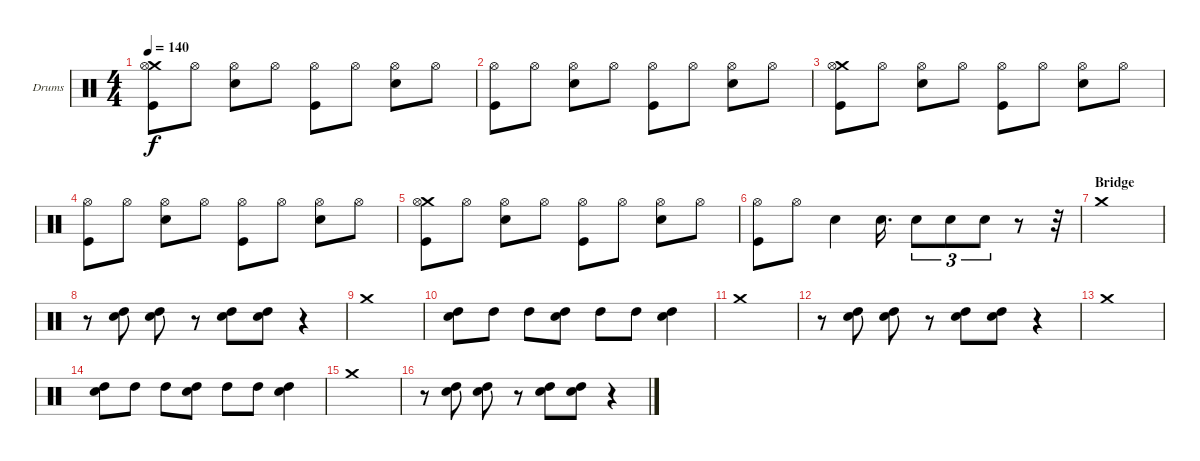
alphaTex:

\bracketExtendMode groupsimilarinstruments
\firstSystemTrackNameOrientation horizontal
\otherSystemsTrackNameOrientation horizontal
\track ("Drumkit" "Drums") {instrument percussion}
\staff {score}
\articulation defaults
\ts (4 4)
\tempo 140
\clef neutral
\ks c
("Crash medium (hit)" "Hi-Hat (open)" "Kick (hit)").8{dy f} "Hi-Hat (open)".8 ("Hi-Hat (open)" "Snare (hit) 2").8 "Hi-Hat (open)".8 ("Hi-Hat (open)" "Kick (hit)").8 "Hi-Hat (open)".8 ("Hi-Hat (open)" "Snare (hit) 2").8 "Hi-Hat (open)".8 |
("Hi-Hat (open)" "Kick (hit)").8 "Hi-Hat (open)".8 ("Hi-Hat (open)" "Snare (hit) 2").8 "Hi-Hat (open)".8 ("Hi-Hat (open)" "Kick (hit)").8 "Hi-Hat (open)".8 ("Hi-Hat (open)" "Snare (hit) 2").8 "Hi-Hat (open)".8 |
("Crash medium (hit)" "Hi-Hat (open)" "Kick (hit)").8 "Hi-Hat (open)".8 ("Hi-Hat (open)" "Snare (hit) 2").8 "Hi-Hat (open)".8 ("Hi-Hat (open)" "Kick (hit)").8 "Hi-Hat (open)".8 ("Hi-Hat (open)" "Snare (hit) 2").8 "Hi-Hat (open)".8 |
("Hi-Hat (open)" "Kick (hit)").8 "Hi-Hat (open)".8 ("Hi-Hat (open)" "Snare (hit) 2").8 "Hi-Hat (open)".8 ("Hi-Hat (open)" "Kick (hit)").8 "Hi-Hat (open)".8 ("Hi-Hat (open)" "Snare (hit) 2").8 "Hi-Hat (open)".8 |
("Crash medium (hit)" "Hi-Hat (open)" "Kick (hit)").8 "Hi-Hat (open)".8 ("Hi-Hat (open)" "Snare (hit) 2").8 "Hi-Hat (open)".8 ("Hi-Hat (open)" "Kick (hit)").8 "Hi-Hat (open)".8 ("Hi-Hat (open)" "Snare (hit) 2").8 "Hi-Hat (open)".8 |
("Hi-Hat (open)" "Kick (hit)").8 "Hi-Hat (open)".8 "Snare (hit) 2".4 "Snare (hit) 2".16{d} "Snare (hit) 2".8{tu (3 2)} "Snare (hit) 2".8{tu (3 2)} "Snare (hit) 2".8{tu (3 2)} r.8 r.32 |
\section ("" "Bridge")
"Crash medium (hit)".1 |
r.8 ("High Tom (hit)" "Snare (hit) 2").8 ("High Tom (hit)" "Snare (hit) 2").8 r.8 ("High Tom (hit)" "Snare (hit) 2").8 ("High Tom (hit)" "Snare (hit) 2").8 r.4 |
"Crash medium (hit)".1 |
("High Tom (hit)" "Snare (hit) 2").8 "High Tom (hit)".8 "High Tom (hit)".8 ("High Tom (hit)" "Snare (hit) 2").8 "High Tom (hit)".8 "High Tom (hit)".8 ("High Tom (hit)" "Snare (hit) 2").4 |
"Crash medium (hit)".1 |
r.8 ("High Tom (hit)" "Snare (hit) 2").8 ("High Tom (hit)" "Snare (hit) 2").8 r.8 ("High Tom (hit)" "Snare (hit) 2").8 ("High Tom (hit)" "Snare (hit) 2").8 r.4 |
"Crash medium (hit)".1 |
("High Tom (hit)" "Snare (hit) 2").8 "High Tom (hit)".8 "High Tom (hit)".8 ("High Tom (hit)" "Snare (hit) 2").8 "High Tom (hit)".8 "High Tom (hit)".8 ("High Tom (hit)" "Snare (hit) 2").4 |
"Crash medium (hit)".1 |
r.8 ("High Tom (hit)" "Snare (hit) 2").8 ("High Tom (hit)" "Snare (hit) 2").8 r.8 ("High Tom (hit)" "Snare (hit) 2").8 ("High Tom (hit)" "Snare (hit) 2").8 r.4
